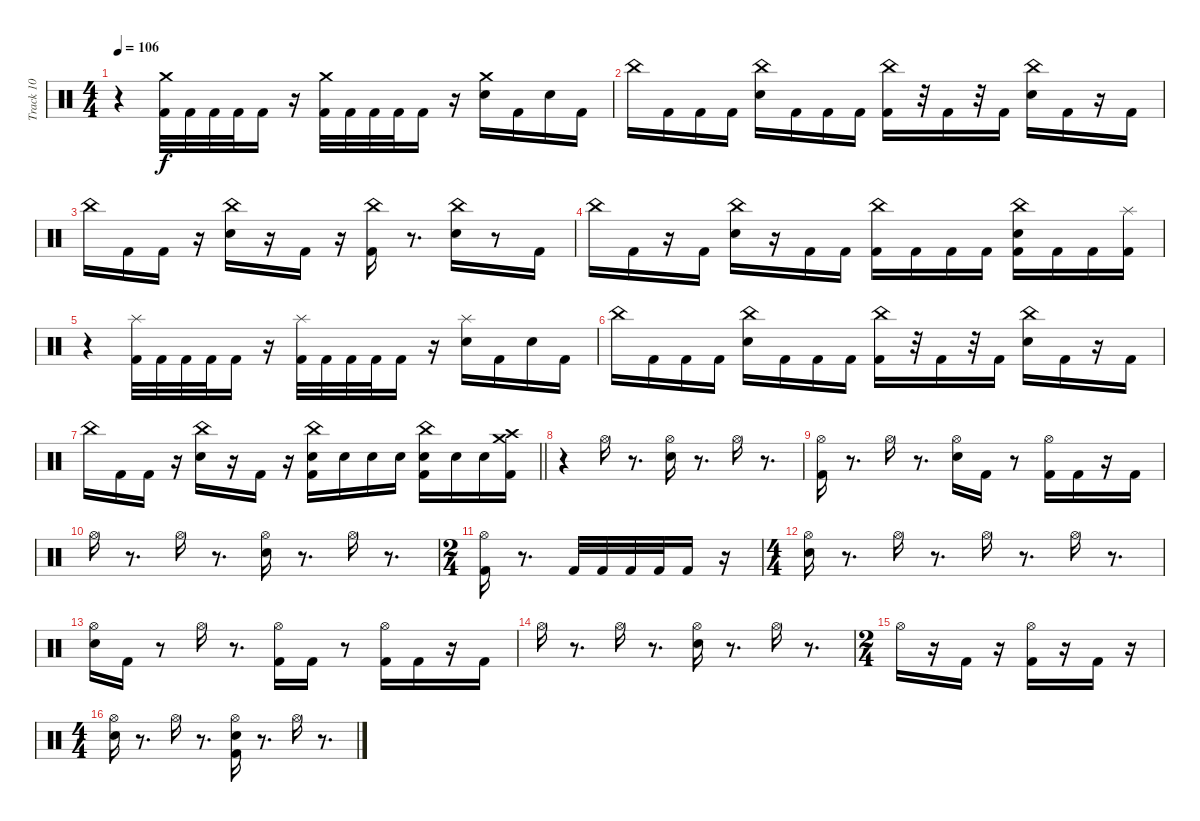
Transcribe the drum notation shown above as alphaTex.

\track ("Track 10" "Track 10") {instrument percussion}
\staff {score}
\articulation defaults
\ts (4 4)
\tempo 106
\clef neutral
\ks c
r.4{dy f} ("Kick (hit) 2" "Crash medium (hit)").32 "Kick (hit) 2".32 "Kick (hit) 2".32 "Kick (hit) 2".32 "Kick (hit) 2".16 r.16 ("Kick (hit) 2" "Crash medium (hit)").32 "Kick (hit) 2".32 "Kick (hit) 2".32 "Kick (hit) 2".32 "Kick (hit) 2".16 r.16 ("Snare (hit) 2" "Crash medium (hit)").16 "Kick (hit) 2".16 "Snare (hit) 2".16 "Kick (hit) 2".16 |
"China (hit)".16 "Kick (hit) 2".16 "Kick (hit) 2".16 "Kick (hit) 2".16 ("Snare (hit) 2" "China (hit)").16 "Kick (hit) 2".16 "Kick (hit) 2".16 "Kick (hit) 2".16 ("Kick (hit) 2" "China (hit)").16 r.32 "Kick (hit) 2".16 r.32 "Kick (hit) 2".16 ("Snare (hit) 2" "China (hit)").16 "Kick (hit) 2".16 r.16 "Kick (hit) 2".16 |
"China (hit)".16 "Kick (hit) 2".16 "Kick (hit) 2".16 r.16 ("Snare (hit) 2" "China (hit)").16 r.16 "Kick (hit) 2".16 r.16 ("Kick (hit) 2" "China (hit)").16 r.8{d} ("Snare (hit) 2" "China (hit)").16 r.8 "Kick (hit) 2".16 |
"China (hit)".16 "Kick (hit) 2".16 r.16 "Kick (hit) 2".16 ("Snare (hit) 2" "China (hit)").16 r.16 "Kick (hit) 2".16 "Kick (hit) 2".16 ("Kick (hit) 2" "China (hit)").16 "Kick (hit) 2".16 "Kick (hit) 2".16 "Kick (hit) 2".16 ("Kick (hit) 2" "Snare (hit) 2" "China (hit)").16 "Kick (hit) 2".16 "Kick (hit) 2".16 ("Kick (hit) 2" "Splash (hit)").16 |
r.4 ("Kick (hit) 2" "Splash (hit)").32 "Kick (hit) 2".32 "Kick (hit) 2".32 "Kick (hit) 2".32 "Kick (hit) 2".16 r.16 ("Kick (hit) 2" "Splash (hit)").32 "Kick (hit) 2".32 "Kick (hit) 2".32 "Kick (hit) 2".32 "Kick (hit) 2".16 r.16 ("Snare (hit) 2" "Splash (hit)").16 "Kick (hit) 2".16 "Snare (hit) 2".16 "Kick (hit) 2".16 |
"China (hit)".16 "Kick (hit) 2".16 "Kick (hit) 2".16 "Kick (hit) 2".16 ("Snare (hit) 2" "China (hit)").16 "Kick (hit) 2".16 "Kick (hit) 2".16 "Kick (hit) 2".16 ("Kick (hit) 2" "China (hit)").16 r.32 "Kick (hit) 2".16 r.32 "Kick (hit) 2".16 ("Snare (hit) 2" "China (hit)").16 "Kick (hit) 2".16 r.16 "Kick (hit) 2".16 |
\barLineRight lightlight "China (hit)".16 "Kick (hit) 2".16 "Kick (hit) 2".16
r.16 ("Snare (hit) 2" "China (hit)").16 r.16 "Kick (hit) 2".16 r.16 ("Kick (hit) 2" "Snare (hit) 2" "China (hit)").16 "Snare (hit) 2".16 "Snare (hit) 2".16 "Snare (hit) 2".16 ("Kick (hit) 2" "Snare (hit) 2" "China (hit)").16 "Snare (hit) 2".16 "Snare (hit) 2".16 ("Kick (hit) 2" "Crash high (hit)" "Crash medium (hit)").16 |
r.4 "Hi-Hat (open)".16 r.8{d} ("Snare (hit) 2" "Hi-Hat (open)").16 r.8{d} "Hi-Hat (open)".16 r.8{d} |
("Kick (hit) 2" "Hi-Hat (open)").16 r.8{d} "Hi-Hat (open)".16 r.8{d} ("Snare (hit) 2" "Hi-Hat (open)").16 "Kick (hit) 2".16 r.8 ("Kick (hit) 2" "Hi-Hat (open)").16 "Kick (hit) 2".16 r.16 "Kick (hit) 2".16 |
"Hi-Hat (open)".16 r.8{d} "Hi-Hat (open)".16 r.8{d} ("Snare (hit) 2" "Hi-Hat (open)").16 r.8{d} "Hi-Hat (open)".16 r.8{d} |
\ts (2 4)
("Kick (hit) 2" "Hi-Hat (open)").16 r.8{d} "Kick (hit) 2".32 "Kick (hit) 2".32 "Kick (hit) 2".32 "Kick (hit) 2".32 "Kick (hit) 2".16 r.16 |
\ts (4 4)
("Snare (hit) 2" "Hi-Hat (open)").16 r.8{d} "Hi-Hat (open)".16 r.8{d} "Hi-Hat (open)".16 r.8{d} "Hi-Hat (open)".16 r.8{d} |
("Snare (hit) 2" "Hi-Hat (open)").16 "Kick (hit) 2".16 r.8 "Hi-Hat (open)".16 r.8{d} ("Kick (hit) 2" "Hi-Hat (open)").16 "Kick (hit) 2".16 r.8 ("Kick (hit) 2" "Hi-Hat (open)").16 "Kick (hit) 2".16 r.16 "Kick (hit) 2".16 |
"Hi-Hat (open)".16 r.8{d} "Hi-Hat (open)".16 r.8{d} ("Snare (hit) 2" "Hi-Hat (open)").16 r.8{d} "Hi-Hat (open)".16 r.8{d} |
\ts (2 4)
"Hi-Hat (open)".16 r.16 "Kick (hit) 2".16 r.16 ("Kick (hit) 2" "Hi-Hat (open)").16 r.16 "Kick (hit) 2".16 r.16 |
\ts (4 4)
("Snare (hit) 2" "Hi-Hat (open)").16 r.8{d} "Hi-Hat (open)".16 r.8{d} ("Kick (hit) 2" "Snare (hit) 2" "Hi-Hat (open)").16 r.8{d} "Hi-Hat (open)".16 r.8{d}
